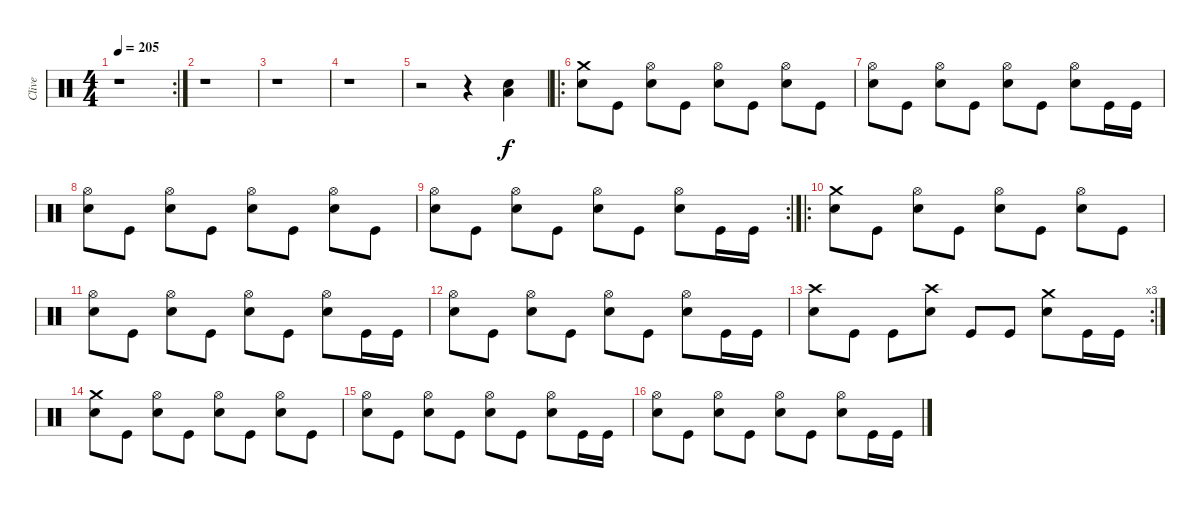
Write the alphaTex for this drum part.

\track ("Clive" "Clive") {instrument percussion}
\staff {score}
\articulation defaults
\rc 2
\ts (4 4)
\tempo 205
\clef neutral
\ks c
r.1{dy f} |
r.1 |
r.1 |
r.1 |
r.2 r.4 ("Snare (hit) 2" "Low Floor Tom (hit)").4 |
\ro
("Crash medium (hit)" "Snare (hit) 2").8 "Kick (hit)".8 ("Hi-Hat (open)" "Snare (hit) 2").8 "Kick (hit)".8 ("Hi-Hat (open)" "Snare (hit) 2").8 "Kick (hit)".8 ("Hi-Hat (open)" "Snare (hit) 2").8 "Kick (hit)".8 |
("Hi-Hat (open)" "Snare (hit) 2").8 "Kick (hit)".8 ("Hi-Hat (open)" "Snare (hit) 2").8 "Kick (hit)".8 ("Hi-Hat (open)" "Snare (hit) 2").8 "Kick (hit)".8 ("Hi-Hat (open)" "Snare (hit) 2").8 "Kick (hit)".16 "Kick (hit)".16 |
("Hi-Hat (open)" "Snare (hit) 2").8 "Kick (hit)".8 ("Hi-Hat (open)" "Snare (hit) 2").8 "Kick (hit)".8 ("Hi-Hat (open)" "Snare (hit) 2").8 "Kick (hit)".8 ("Hi-Hat (open)" "Snare (hit) 2").8 "Kick (hit)".8 |
\rc 2
("Hi-Hat (open)" "Snare (hit) 2").8 "Kick (hit)".8 ("Hi-Hat (open)" "Snare (hit) 2").8 "Kick (hit)".8 ("Hi-Hat (open)" "Snare (hit) 2").8 "Kick (hit)".8 ("Hi-Hat (open)" "Snare (hit) 2").8 "Kick (hit)".16 "Kick (hit)".16 |
\ro
("Crash medium (hit)" "Snare (hit) 2").8 "Kick (hit)".8 ("Hi-Hat (open)" "Snare (hit) 2").8 "Kick (hit)".8 ("Hi-Hat (open)" "Snare (hit) 2").8 "Kick (hit)".8 ("Hi-Hat (open)" "Snare (hit) 2").8 "Kick (hit)".8 |
("Hi-Hat (open)" "Snare (hit) 2").8 "Kick (hit)".8 ("Hi-Hat (open)" "Snare (hit) 2").8 "Kick (hit)".8 ("Hi-Hat (open)" "Snare (hit) 2").8 "Kick (hit)".8 ("Hi-Hat (open)" "Snare (hit) 2").8 "Kick (hit)".16 "Kick (hit)".16 |
("Hi-Hat (open)" "Snare (hit) 2").8 "Kick (hit)".8 ("Hi-Hat (open)" "Snare (hit) 2").8 "Kick (hit)".8 ("Hi-Hat (open)" "Snare (hit) 2").8 "Kick (hit)".8 ("Hi-Hat (open)" "Snare (hit) 2").8 "Kick (hit)".16 "Kick (hit)".16 |
\rc 3
("Crash high (hit)" "Snare (hit) 2").8 "Kick (hit)".8 "Kick (hit)".8 ("Crash high (hit)" "Snare (hit) 2").8 "Kick (hit)".8 "Kick (hit)".8 ("Crash medium (hit)" "Snare (hit) 2").8 "Kick (hit)".16 "Kick (hit)".16 |
("Crash medium (hit)" "Snare (hit) 2").8 "Kick (hit)".8 ("Hi-Hat (open)" "Snare (hit) 2").8 "Kick (hit)".8 ("Hi-Hat (open)" "Snare (hit) 2").8 "Kick (hit)".8 ("Hi-Hat (open)" "Snare (hit) 2").8 "Kick (hit)".8 |
("Hi-Hat (open)" "Snare (hit) 2").8 "Kick (hit)".8 ("Hi-Hat (open)" "Snare (hit) 2").8 "Kick (hit)".8 ("Hi-Hat (open)" "Snare (hit) 2").8 "Kick (hit)".8 ("Hi-Hat (open)" "Snare (hit) 2").8 "Kick (hit)".16 "Kick (hit)".16 |
("Hi-Hat (open)" "Snare (hit) 2").8 "Kick (hit)".8 ("Hi-Hat (open)" "Snare (hit) 2").8 "Kick (hit)".8 ("Hi-Hat (open)" "Snare (hit) 2").8 "Kick (hit)".8 ("Hi-Hat (open)" "Snare (hit) 2").8 "Kick (hit)".16 "Kick (hit)".16
